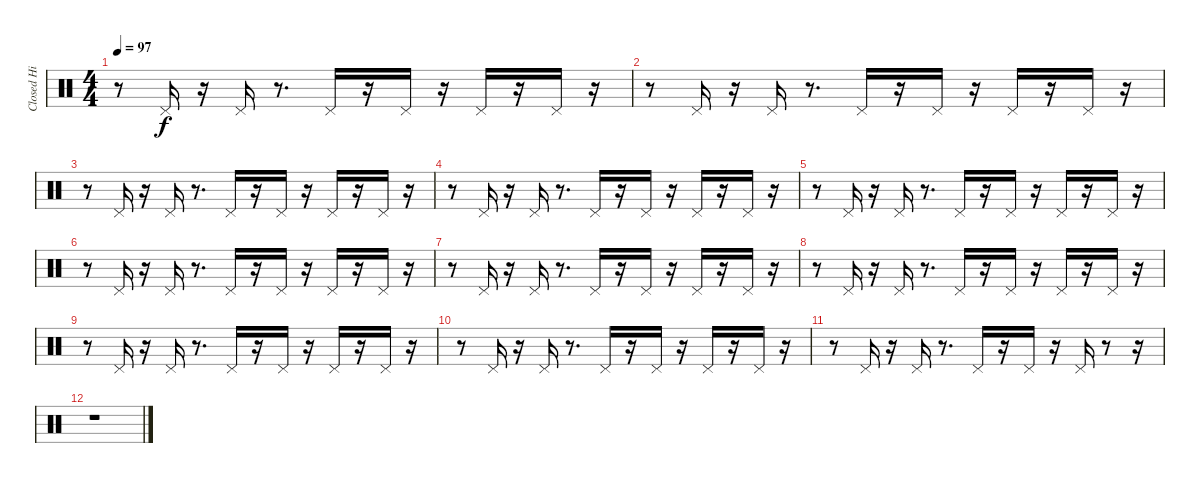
\track ("Closed Hi Hat" "Closed Hi ") {instrument percussion}
\staff {score}
\articulation defaults
\ts (4 4)
\tempo 97
\clef neutral
\ks c
r.8{dy f} "Pedal Hi-Hat (hit)".16 r.16 "Pedal Hi-Hat (hit)".16 r.8{d} "Pedal Hi-Hat (hit)".16 r.16 "Pedal Hi-Hat (hit)".16 r.16 "Pedal Hi-Hat (hit)".16 r.16 "Pedal Hi-Hat (hit)".16 r.16 |
r.8 "Pedal Hi-Hat (hit)".16 r.16 "Pedal Hi-Hat (hit)".16 r.8{d} "Pedal Hi-Hat (hit)".16 r.16 "Pedal Hi-Hat (hit)".16 r.16 "Pedal Hi-Hat (hit)".16 r.16 "Pedal Hi-Hat (hit)".16 r.16 |
r.8 "Pedal Hi-Hat (hit)".16 r.16 "Pedal Hi-Hat (hit)".16 r.8{d} "Pedal Hi-Hat (hit)".16 r.16 "Pedal Hi-Hat (hit)".16 r.16 "Pedal Hi-Hat (hit)".16 r.16 "Pedal Hi-Hat (hit)".16 r.16 |
r.8 "Pedal Hi-Hat (hit)".16 r.16 "Pedal Hi-Hat (hit)".16 r.8{d} "Pedal Hi-Hat (hit)".16 r.16 "Pedal Hi-Hat (hit)".16 r.16 "Pedal Hi-Hat (hit)".16 r.16 "Pedal Hi-Hat (hit)".16 r.16 |
r.8 "Pedal Hi-Hat (hit)".16 r.16 "Pedal Hi-Hat (hit)".16 r.8{d} "Pedal Hi-Hat (hit)".16 r.16 "Pedal Hi-Hat (hit)".16 r.16 "Pedal Hi-Hat (hit)".16 r.16 "Pedal Hi-Hat (hit)".16 r.16 |
r.8 "Pedal Hi-Hat (hit)".16 r.16 "Pedal Hi-Hat (hit)".16 r.8{d} "Pedal Hi-Hat (hit)".16 r.16 "Pedal Hi-Hat (hit)".16 r.16 "Pedal Hi-Hat (hit)".16 r.16 "Pedal Hi-Hat (hit)".16 r.16 |
r.8 "Pedal Hi-Hat (hit)".16 r.16 "Pedal Hi-Hat (hit)".16 r.8{d} "Pedal Hi-Hat (hit)".16 r.16 "Pedal Hi-Hat (hit)".16 r.16 "Pedal Hi-Hat (hit)".16 r.16 "Pedal Hi-Hat (hit)".16 r.16 |
r.8 "Pedal Hi-Hat (hit)".16 r.16 "Pedal Hi-Hat (hit)".16 r.8{d} "Pedal Hi-Hat (hit)".16 r.16 "Pedal Hi-Hat (hit)".16 r.16 "Pedal Hi-Hat (hit)".16 r.16 "Pedal Hi-Hat (hit)".16 r.16 |
r.8 "Pedal Hi-Hat (hit)".16 r.16 "Pedal Hi-Hat (hit)".16 r.8{d} "Pedal Hi-Hat (hit)".16 r.16 "Pedal Hi-Hat (hit)".16 r.16 "Pedal Hi-Hat (hit)".16 r.16 "Pedal Hi-Hat (hit)".16 r.16 |
r.8 "Pedal Hi-Hat (hit)".16 r.16 "Pedal Hi-Hat (hit)".16 r.8{d} "Pedal Hi-Hat (hit)".16 r.16 "Pedal Hi-Hat (hit)".16 r.16 "Pedal Hi-Hat (hit)".16 r.16 "Pedal Hi-Hat (hit)".16 r.16 |
r.8 "Pedal Hi-Hat (hit)".16 r.16 "Pedal Hi-Hat (hit)".16 r.8{d} "Pedal Hi-Hat (hit)".16 r.16 "Pedal Hi-Hat (hit)".16 r.16 "Pedal Hi-Hat (hit)".16 r.8 r.16 |
r.1
